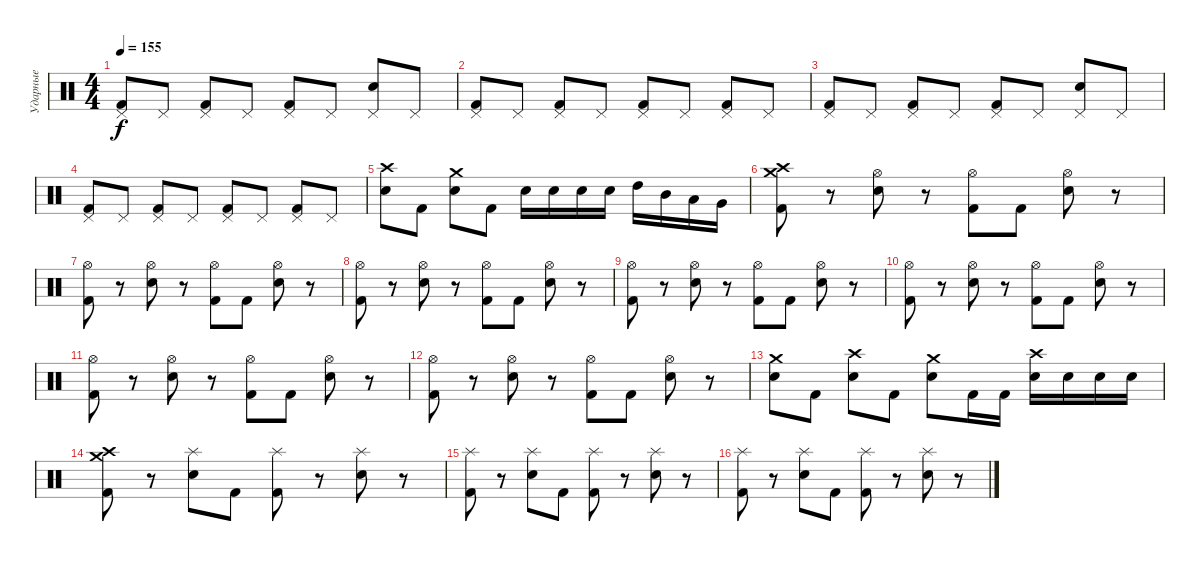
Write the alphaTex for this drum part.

\track ("Ударные" "Ударные") {instrument percussion}
\staff {score}
\articulation defaults
\ts (4 4)
\tempo 155
\clef neutral
\ks c
("Pedal Hi-Hat (hit)" "Kick (hit) 2").8{dy f} "Pedal Hi-Hat (hit)".8 ("Pedal Hi-Hat (hit)" "Kick (hit) 2").8 "Pedal Hi-Hat (hit)".8 ("Pedal Hi-Hat (hit)" "Kick (hit) 2").8 "Pedal Hi-Hat (hit)".8 ("Pedal Hi-Hat (hit)" "Electric Snare (hit)").8 "Pedal Hi-Hat (hit)".8 |
("Pedal Hi-Hat (hit)" "Kick (hit) 2").8 "Pedal Hi-Hat (hit)".8 ("Pedal Hi-Hat (hit)" "Kick (hit) 2").8 "Pedal Hi-Hat (hit)".8 ("Pedal Hi-Hat (hit)" "Kick (hit) 2").8 "Pedal Hi-Hat (hit)".8 ("Pedal Hi-Hat (hit)" "Kick (hit) 2").8 "Pedal Hi-Hat (hit)".8 |
("Pedal Hi-Hat (hit)" "Kick (hit) 2").8 "Pedal Hi-Hat (hit)".8 ("Pedal Hi-Hat (hit)" "Kick (hit) 2").8 "Pedal Hi-Hat (hit)".8 ("Pedal Hi-Hat (hit)" "Kick (hit) 2").8 "Pedal Hi-Hat (hit)".8 ("Pedal Hi-Hat (hit)" "Electric Snare (hit)").8 "Pedal Hi-Hat (hit)".8 |
("Pedal Hi-Hat (hit)" "Kick (hit) 2").8 "Pedal Hi-Hat (hit)".8 ("Pedal Hi-Hat (hit)" "Kick (hit) 2").8 "Pedal Hi-Hat (hit)".8 ("Pedal Hi-Hat (hit)" "Kick (hit) 2").8 "Pedal Hi-Hat (hit)".8 ("Pedal Hi-Hat (hit)" "Kick (hit) 2").8 "Pedal Hi-Hat (hit)".8 |
("Crash high (hit)" "Electric Snare (hit)").8 "Kick (hit) 2".8 ("Crash medium (hit)" "Electric Snare (hit)").8 "Kick (hit) 2".8 "Electric Snare (hit)".16 "Electric Snare (hit)".16 "Electric Snare (hit)".16 "Electric Snare (hit)".16 "High Tom (hit)".16 "Mid Tom (hit)".16 "Low Tom (hit)".16 "Very Low Tom (hit)".16 |
("Crash medium (hit)" "Crash high (hit)" "Kick (hit) 2").8 r.8 ("Hi-Hat (open)" "Electric Snare (hit)").8 r.8 ("Hi-Hat (open)" "Kick (hit) 2").8 "Kick (hit) 2".8 ("Hi-Hat (open)" "Electric Snare (hit)").8 r.8 |
("Hi-Hat (open)" "Kick (hit) 2").8 r.8 ("Hi-Hat (open)" "Electric Snare (hit)").8 r.8 ("Hi-Hat (open)" "Kick (hit) 2").8 "Kick (hit) 2".8 ("Hi-Hat (open)" "Electric Snare (hit)").8 r.8 |
("Hi-Hat (open)" "Kick (hit) 2").8 r.8 ("Hi-Hat (open)" "Electric Snare (hit)").8 r.8 ("Hi-Hat (open)" "Kick (hit) 2").8 "Kick (hit) 2".8 ("Hi-Hat (open)" "Electric Snare (hit)").8 r.8 |
("Hi-Hat (open)" "Kick (hit) 2").8 r.8 ("Hi-Hat (open)" "Electric Snare (hit)").8 r.8 ("Hi-Hat (open)" "Kick (hit) 2").8 "Kick (hit) 2".8 ("Hi-Hat (open)" "Electric Snare (hit)").8 r.8 |
("Hi-Hat (open)" "Kick (hit) 2").8 r.8 ("Hi-Hat (open)" "Electric Snare (hit)").8 r.8 ("Hi-Hat (open)" "Kick (hit) 2").8 "Kick (hit) 2".8 ("Hi-Hat (open)" "Electric Snare (hit)").8 r.8 |
("Hi-Hat (open)" "Kick (hit) 2").8 r.8 ("Hi-Hat (open)" "Electric Snare (hit)").8 r.8 ("Hi-Hat (open)" "Kick (hit) 2").8 "Kick (hit) 2".8 ("Hi-Hat (open)" "Electric Snare (hit)").8 r.8 |
("Hi-Hat (open)" "Kick (hit) 2").8 r.8 ("Hi-Hat (open)" "Electric Snare (hit)").8 r.8 ("Hi-Hat (open)" "Kick (hit) 2").8 "Kick (hit) 2".8 ("Hi-Hat (open)" "Electric Snare (hit)").8 r.8 |
("Crash medium (hit)" "Electric Snare (hit)").8 "Kick (hit) 2".8 ("Crash high (hit)" "Electric Snare (hit)").8 "Kick (hit) 2".8 ("Crash medium (hit)" "Electric Snare (hit)").8 "Kick (hit) 2".16 "Kick (hit) 2".16 ("Crash high (hit)" "Electric Snare (hit)").16 "Electric Snare (hit)".16 "Electric Snare (hit)".16 "Electric Snare (hit)".16 |
("Crash medium (hit)" "Crash high (hit)" "Kick (hit) 2").8 r.8 ("Splash (hit)" "Electric Snare (hit)").8 "Kick (hit) 2".8 ("Splash (hit)" "Kick (hit) 2").8 r.8 ("Splash (hit)" "Electric Snare (hit)").8 r.8 |
("Splash (hit)" "Kick (hit) 2").8 r.8 ("Splash (hit)" "Electric Snare (hit)").8 "Kick (hit) 2".8 ("Splash (hit)" "Kick (hit) 2").8 r.8 ("Splash (hit)" "Electric Snare (hit)").8 r.8 |
("Splash (hit)" "Kick (hit) 2").8 r.8 ("Splash (hit)" "Electric Snare (hit)").8 "Kick (hit) 2".8 ("Splash (hit)" "Kick (hit) 2").8 r.8 ("Splash (hit)" "Electric Snare (hit)").8 r.8
